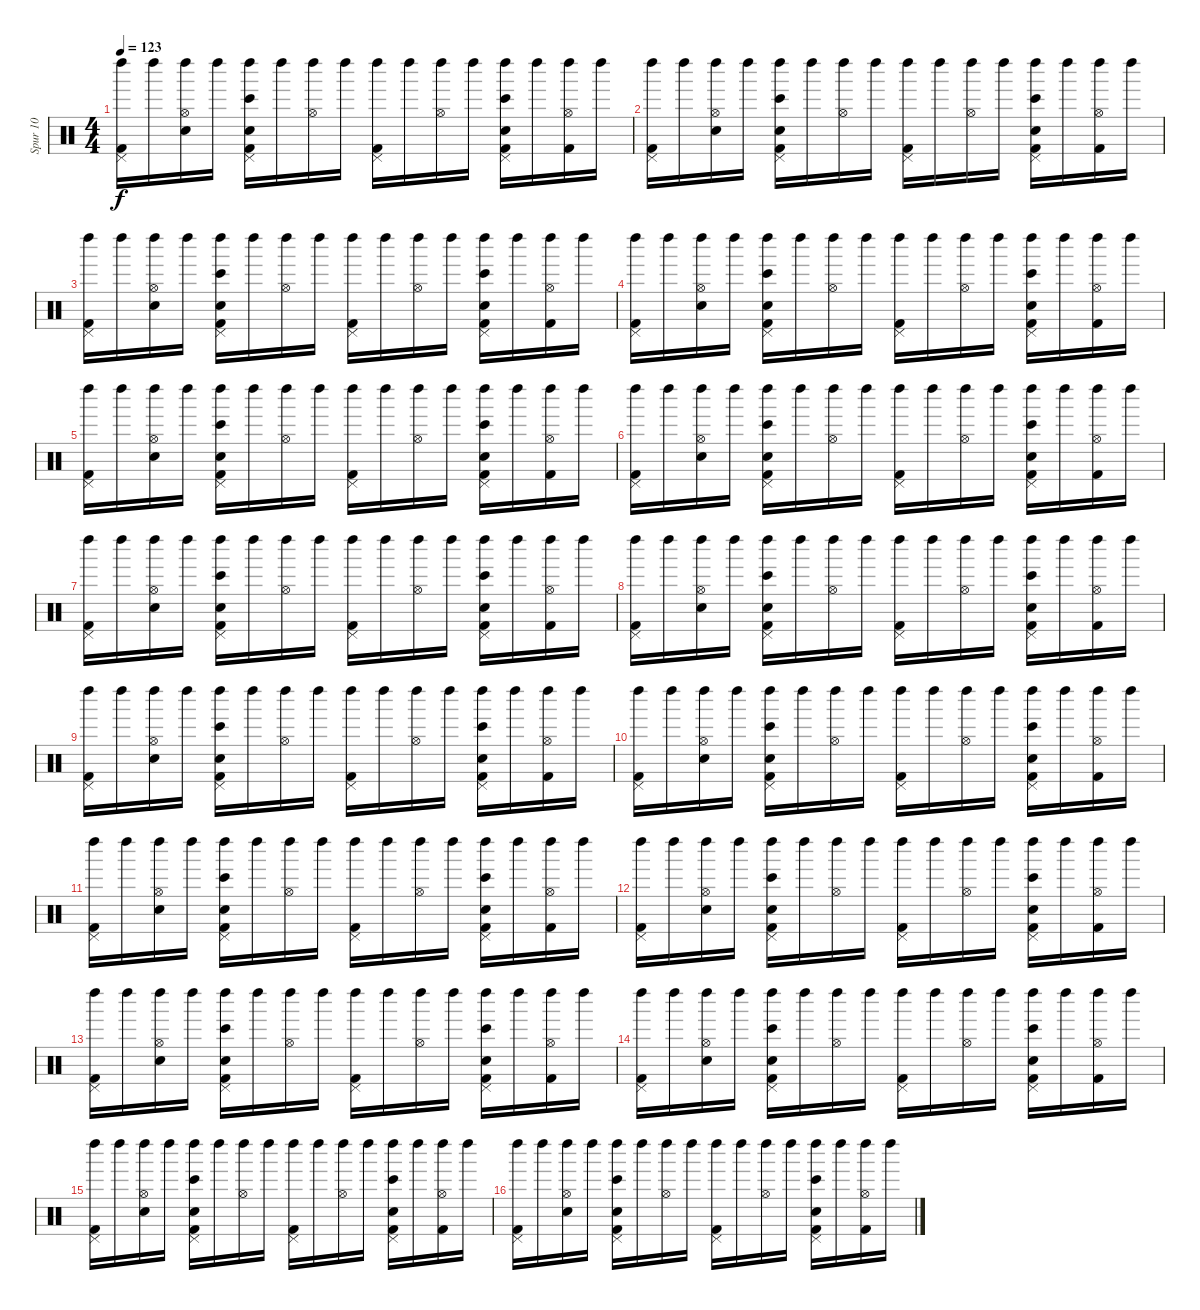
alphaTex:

\track ("Spur 10" "Spur 10") {instrument percussion}
\staff {score}
\articulation defaults
\ts (4 4)
\tempo 123
\clef neutral
\ks c
("Left Maraca (hit)" "Kick (hit) 2" "Pedal Hi-Hat (hit)").16{dy f} "Left Maraca (hit)".16 ("Electric Snare (hit)" "Left Maraca (hit)" "Hi-Hat (open)").16 "Left Maraca (hit)".16 ("Snare (hit) 2" "Kick (hit) 2" "Bongo High (hit)" "Left Maraca (hit)" "Pedal Hi-Hat (hit)").16 "Left Maraca (hit)".16 ("Left Maraca (hit)" "Hi-Hat (open)").16 "Left Maraca (hit)".16 ("Left Maraca (hit)" "Kick (hit) 2" "Pedal Hi-Hat (hit)").16 "Left Maraca (hit)".16 ("Left Maraca (hit)" "Hi-Hat (open)").16 "Left Maraca (hit)".16 ("Left Maraca (hit)" "Snare (hit) 2" "Bongo High (hit)" "Kick (hit) 2" "Pedal Hi-Hat (hit)").16 "Left Maraca (hit)".16 ("Kick (hit) 2" "Left Maraca (hit)" "Hi-Hat (open)").16 "Left Maraca (hit)".16 |
("Left Maraca (hit)" "Kick (hit) 2" "Pedal Hi-Hat (hit)").16 "Left Maraca (hit)".16 ("Left Maraca (hit)" "Electric Snare (hit)" "Hi-Hat (open)").16 "Left Maraca (hit)".16 ("Kick (hit) 2" "Left Maraca (hit)" "Snare (hit) 2" "Bongo High (hit)" "Pedal Hi-Hat (hit)").16 "Left Maraca (hit)".16 ("Left Maraca (hit)" "Hi-Hat (open)").16 "Left Maraca (hit)".16 ("Kick (hit) 2" "Left Maraca (hit)" "Pedal Hi-Hat (hit)").16 "Left Maraca (hit)".16 ("Left Maraca (hit)" "Hi-Hat (open)").16 "Left Maraca (hit)".16 ("Kick (hit) 2" "Snare (hit) 2" "Bongo High (hit)" "Left Maraca (hit)" "Pedal Hi-Hat (hit)").16 "Left Maraca (hit)".16 ("Left Maraca (hit)" "Kick (hit) 2" "Hi-Hat (open)").16 "Left Maraca (hit)".16 |
("Left Maraca (hit)" "Kick (hit) 2" "Pedal Hi-Hat (hit)").16 "Left Maraca (hit)".16 ("Electric Snare (hit)" "Left Maraca (hit)" "Hi-Hat (open)").16 "Left Maraca (hit)".16 ("Bongo High (hit)" "Left Maraca (hit)" "Kick (hit) 2" "Snare (hit) 2" "Pedal Hi-Hat (hit)").16 "Left Maraca (hit)".16 ("Left Maraca (hit)" "Hi-Hat (open)").16 "Left Maraca (hit)".16 ("Kick (hit) 2" "Left Maraca (hit)" "Pedal Hi-Hat (hit)").16 "Left Maraca (hit)".16 ("Left Maraca (hit)" "Hi-Hat (open)").16 "Left Maraca (hit)".16 ("Left Maraca (hit)" "Snare (hit) 2" "Bongo High (hit)" "Kick (hit) 2" "Pedal Hi-Hat (hit)").16 "Left Maraca (hit)".16 ("Kick (hit) 2" "Left Maraca (hit)" "Hi-Hat (open)").16 "Left Maraca (hit)".16 |
("Kick (hit) 2" "Left Maraca (hit)" "Pedal Hi-Hat (hit)").16 "Left Maraca (hit)".16 ("Electric Snare (hit)" "Left Maraca (hit)" "Hi-Hat (open)").16 "Left Maraca (hit)".16 ("Bongo High (hit)" "Left Maraca (hit)" "Snare (hit) 2" "Kick (hit) 2" "Pedal Hi-Hat (hit)").16 "Left Maraca (hit)".16 ("Left Maraca (hit)" "Hi-Hat (open)").16 "Left Maraca (hit)".16 ("Kick (hit) 2" "Left Maraca (hit)" "Pedal Hi-Hat (hit)").16 "Left Maraca (hit)".16 ("Left Maraca (hit)" "Hi-Hat (open)").16 "Left Maraca (hit)".16 ("Kick (hit) 2" "Snare (hit) 2" "Bongo High (hit)" "Left Maraca (hit)" "Pedal Hi-Hat (hit)").16 "Left Maraca (hit)".16 ("Left Maraca (hit)" "Kick (hit) 2" "Hi-Hat (open)").16 "Left Maraca (hit)".16 |
("Left Maraca (hit)" "Kick (hit) 2" "Pedal Hi-Hat (hit)").16 "Left Maraca (hit)".16 ("Left Maraca (hit)" "Electric Snare (hit)" "Hi-Hat (open)").16 "Left Maraca (hit)".16 ("Snare (hit) 2" "Kick (hit) 2" "Bongo High (hit)" "Left Maraca (hit)" "Pedal Hi-Hat (hit)").16 "Left Maraca (hit)".16 ("Left Maraca (hit)" "Hi-Hat (open)").16 "Left Maraca (hit)".16 ("Left Maraca (hit)" "Kick (hit) 2" "Pedal Hi-Hat (hit)").16 "Left Maraca (hit)".16 ("Left Maraca (hit)" "Hi-Hat (open)").16 "Left Maraca (hit)".16 ("Snare (hit) 2" "Left Maraca (hit)" "Kick (hit) 2" "Bongo High (hit)" "Pedal Hi-Hat (hit)").16 "Left Maraca (hit)".16 ("Left Maraca (hit)" "Kick (hit) 2" "Hi-Hat (open)").16 "Left Maraca (hit)".16 |
("Kick (hit) 2" "Left Maraca (hit)" "Pedal Hi-Hat (hit)").16 "Left Maraca (hit)".16 ("Electric Snare (hit)" "Left Maraca (hit)" "Hi-Hat (open)").16 "Left Maraca (hit)".16 ("Kick (hit) 2" "Left Maraca (hit)" "Snare (hit) 2" "Bongo High (hit)" "Pedal Hi-Hat (hit)").16 "Left Maraca (hit)".16 ("Left Maraca (hit)" "Hi-Hat (open)").16 "Left Maraca (hit)".16 ("Left Maraca (hit)" "Kick (hit) 2" "Pedal Hi-Hat (hit)").16 "Left Maraca (hit)".16 ("Left Maraca (hit)" "Hi-Hat (open)").16 "Left Maraca (hit)".16 ("Left Maraca (hit)" "Bongo High (hit)" "Snare (hit) 2" "Kick (hit) 2" "Pedal Hi-Hat (hit)").16 "Left Maraca (hit)".16 ("Left Maraca (hit)" "Kick (hit) 2" "Hi-Hat (open)").16 "Left Maraca (hit)".16 |
("Kick (hit) 2" "Left Maraca (hit)" "Pedal Hi-Hat (hit)").16 "Left Maraca (hit)".16 ("Electric Snare (hit)" "Left Maraca (hit)" "Hi-Hat (open)").16 "Left Maraca (hit)".16 ("Kick (hit) 2" "Left Maraca (hit)" "Snare (hit) 2" "Bongo High (hit)" "Pedal Hi-Hat (hit)").16 "Left Maraca (hit)".16 ("Left Maraca (hit)" "Hi-Hat (open)").16 "Left Maraca (hit)".16 ("Kick (hit) 2" "Left Maraca (hit)" "Pedal Hi-Hat (hit)").16 "Left Maraca (hit)".16 ("Left Maraca (hit)" "Hi-Hat (open)").16 "Left Maraca (hit)".16 ("Left Maraca (hit)" "Snare (hit) 2" "Kick (hit) 2" "Bongo High (hit)" "Pedal Hi-Hat (hit)").16 "Left Maraca (hit)".16 ("Kick (hit) 2" "Left Maraca (hit)" "Hi-Hat (open)").16 "Left Maraca (hit)".16 |
("Kick (hit) 2" "Left Maraca (hit)" "Pedal Hi-Hat (hit)").16 "Left Maraca (hit)".16 ("Electric Snare (hit)" "Left Maraca (hit)" "Hi-Hat (open)").16 "Left Maraca (hit)".16 ("Left Maraca (hit)" "Bongo High (hit)" "Kick (hit) 2" "Snare (hit) 2" "Pedal Hi-Hat (hit)").16 "Left Maraca (hit)".16 ("Left Maraca (hit)" "Hi-Hat (open)").16 "Left Maraca (hit)".16 ("Left Maraca (hit)" "Kick (hit) 2" "Pedal Hi-Hat (hit)").16 "Left Maraca (hit)".16 ("Left Maraca (hit)" "Hi-Hat (open)").16 "Left Maraca (hit)".16 ("Snare (hit) 2" "Bongo High (hit)" "Kick (hit) 2" "Left Maraca (hit)" "Pedal Hi-Hat (hit)").16 "Left Maraca (hit)".16 ("Kick (hit) 2" "Left Maraca (hit)" "Hi-Hat (open)").16 "Left Maraca (hit)".16 |
("Left Maraca (hit)" "Kick (hit) 2" "Pedal Hi-Hat (hit)").16 "Left Maraca (hit)".16 ("Left Maraca (hit)" "Electric Snare (hit)" "Hi-Hat (open)").16 "Left Maraca (hit)".16 ("Kick (hit) 2" "Left Maraca (hit)" "Snare (hit) 2" "Bongo High (hit)" "Pedal Hi-Hat (hit)").16 "Left Maraca (hit)".16 ("Left Maraca (hit)" "Hi-Hat (open)").16 "Left Maraca (hit)".16 ("Kick (hit) 2" "Left Maraca (hit)" "Pedal Hi-Hat (hit)").16 "Left Maraca (hit)".16 ("Left Maraca (hit)" "Hi-Hat (open)").16 "Left Maraca (hit)".16 ("Kick (hit) 2" "Snare (hit) 2" "Bongo High (hit)" "Left Maraca (hit)" "Pedal Hi-Hat (hit)").16 "Left Maraca (hit)".16 ("Left Maraca (hit)" "Kick (hit) 2" "Hi-Hat (open)").16 "Left Maraca (hit)".16 |
("Left Maraca (hit)" "Kick (hit) 2" "Pedal Hi-Hat (hit)").16 "Left Maraca (hit)".16 ("Electric Snare (hit)" "Left Maraca (hit)" "Hi-Hat (open)").16 "Left Maraca (hit)".16 ("Bongo High (hit)" "Left Maraca (hit)" "Kick (hit) 2" "Snare (hit) 2" "Pedal Hi-Hat (hit)").16 "Left Maraca (hit)".16 ("Left Maraca (hit)" "Hi-Hat (open)").16 "Left Maraca (hit)".16 ("Kick (hit) 2" "Left Maraca (hit)" "Pedal Hi-Hat (hit)").16 "Left Maraca (hit)".16 ("Left Maraca (hit)" "Hi-Hat (open)").16 "Left Maraca (hit)".16 ("Left Maraca (hit)" "Snare (hit) 2" "Bongo High (hit)" "Kick (hit) 2" "Pedal Hi-Hat (hit)").16 "Left Maraca (hit)".16 ("Kick (hit) 2" "Left Maraca (hit)" "Hi-Hat (open)").16 "Left Maraca (hit)".16 |
("Kick (hit) 2" "Left Maraca (hit)" "Pedal Hi-Hat (hit)").16 "Left Maraca (hit)".16 ("Electric Snare (hit)" "Left Maraca (hit)" "Hi-Hat (open)").16 "Left Maraca (hit)".16 ("Bongo High (hit)" "Left Maraca (hit)" "Snare (hit) 2" "Kick (hit) 2" "Pedal Hi-Hat (hit)").16 "Left Maraca (hit)".16 ("Left Maraca (hit)" "Hi-Hat (open)").16 "Left Maraca (hit)".16 ("Kick (hit) 2" "Left Maraca (hit)" "Pedal Hi-Hat (hit)").16 "Left Maraca (hit)".16 ("Left Maraca (hit)" "Hi-Hat (open)").16 "Left Maraca (hit)".16 ("Kick (hit) 2" "Snare (hit) 2" "Bongo High (hit)" "Left Maraca (hit)" "Pedal Hi-Hat (hit)").16 "Left Maraca (hit)".16 ("Left Maraca (hit)" "Kick (hit) 2" "Hi-Hat (open)").16 "Left Maraca (hit)".16 |
("Left Maraca (hit)" "Kick (hit) 2" "Pedal Hi-Hat (hit)").16 "Left Maraca (hit)".16 ("Left Maraca (hit)" "Electric Snare (hit)" "Hi-Hat (open)").16 "Left Maraca (hit)".16 ("Snare (hit) 2" "Kick (hit) 2" "Bongo High (hit)" "Left Maraca (hit)" "Pedal Hi-Hat (hit)").16 "Left Maraca (hit)".16 ("Left Maraca (hit)" "Hi-Hat (open)").16 "Left Maraca (hit)".16 ("Left Maraca (hit)" "Kick (hit) 2" "Pedal Hi-Hat (hit)").16 "Left Maraca (hit)".16 ("Left Maraca (hit)" "Hi-Hat (open)").16 "Left Maraca (hit)".16 ("Snare (hit) 2" "Left Maraca (hit)" "Kick (hit) 2" "Bongo High (hit)" "Pedal Hi-Hat (hit)").16 "Left Maraca (hit)".16 ("Left Maraca (hit)" "Kick (hit) 2" "Hi-Hat (open)").16 "Left Maraca (hit)".16 |
("Kick (hit) 2" "Left Maraca (hit)" "Pedal Hi-Hat (hit)").16 "Left Maraca (hit)".16 ("Electric Snare (hit)" "Left Maraca (hit)" "Hi-Hat (open)").16 "Left Maraca (hit)".16 ("Kick (hit) 2" "Left Maraca (hit)" "Snare (hit) 2" "Bongo High (hit)" "Pedal Hi-Hat (hit)").16 "Left Maraca (hit)".16 ("Left Maraca (hit)" "Hi-Hat (open)").16 "Left Maraca (hit)".16 ("Left Maraca (hit)" "Kick (hit) 2" "Pedal Hi-Hat (hit)").16 "Left Maraca (hit)".16 ("Left Maraca (hit)" "Hi-Hat (open)").16 "Left Maraca (hit)".16 ("Left Maraca (hit)" "Bongo High (hit)" "Snare (hit) 2" "Kick (hit) 2" "Pedal Hi-Hat (hit)").16 "Left Maraca (hit)".16 ("Left Maraca (hit)" "Kick (hit) 2" "Hi-Hat (open)").16 "Left Maraca (hit)".16 |
("Kick (hit) 2" "Left Maraca (hit)" "Pedal Hi-Hat (hit)").16 "Left Maraca (hit)".16 ("Electric Snare (hit)" "Left Maraca (hit)" "Hi-Hat (open)").16 "Left Maraca (hit)".16 ("Kick (hit) 2" "Left Maraca (hit)" "Snare (hit) 2" "Bongo High (hit)" "Pedal Hi-Hat (hit)").16 "Left Maraca (hit)".16 ("Left Maraca (hit)" "Hi-Hat (open)").16 "Left Maraca (hit)".16 ("Kick (hit) 2" "Left Maraca (hit)" "Pedal Hi-Hat (hit)").16 "Left Maraca (hit)".16 ("Left Maraca (hit)" "Hi-Hat (open)").16 "Left Maraca (hit)".16 ("Left Maraca (hit)" "Snare (hit) 2" "Kick (hit) 2" "Bongo High (hit)" "Pedal Hi-Hat (hit)").16 "Left Maraca (hit)".16 ("Kick (hit) 2" "Left Maraca (hit)" "Hi-Hat (open)").16 "Left Maraca (hit)".16 |
("Kick (hit) 2" "Left Maraca (hit)" "Pedal Hi-Hat (hit)").16 "Left Maraca (hit)".16 ("Electric Snare (hit)" "Left Maraca (hit)" "Hi-Hat (open)").16 "Left Maraca (hit)".16 ("Left Maraca (hit)" "Bongo High (hit)" "Kick (hit) 2" "Snare (hit) 2" "Pedal Hi-Hat (hit)").16 "Left Maraca (hit)".16 ("Left Maraca (hit)" "Hi-Hat (open)").16 "Left Maraca (hit)".16 ("Left Maraca (hit)" "Kick (hit) 2" "Pedal Hi-Hat (hit)").16 "Left Maraca (hit)".16 ("Left Maraca (hit)" "Hi-Hat (open)").16 "Left Maraca (hit)".16 ("Snare (hit) 2" "Bongo High (hit)" "Kick (hit) 2" "Left Maraca (hit)" "Pedal Hi-Hat (hit)").16 "Left Maraca (hit)".16 ("Kick (hit) 2" "Left Maraca (hit)" "Hi-Hat (open)").16 "Left Maraca (hit)".16 |
("Left Maraca (hit)" "Kick (hit) 2" "Pedal Hi-Hat (hit)").16 "Left Maraca (hit)".16 ("Electric Snare (hit)" "Left Maraca (hit)" "Hi-Hat (open)").16 "Left Maraca (hit)".16 ("Snare (hit) 2" "Kick (hit) 2" "Bongo High (hit)" "Left Maraca (hit)" "Pedal Hi-Hat (hit)").16 "Left Maraca (hit)".16 ("Left Maraca (hit)" "Hi-Hat (open)").16 "Left Maraca (hit)".16 ("Left Maraca (hit)" "Kick (hit) 2" "Pedal Hi-Hat (hit)").16 "Left Maraca (hit)".16 ("Left Maraca (hit)" "Hi-Hat (open)").16 "Left Maraca (hit)".16 ("Left Maraca (hit)" "Snare (hit) 2" "Bongo High (hit)" "Kick (hit) 2" "Pedal Hi-Hat (hit)").16 "Left Maraca (hit)".16 ("Kick (hit) 2" "Left Maraca (hit)" "Hi-Hat (open)").16 "Left Maraca (hit)".16
